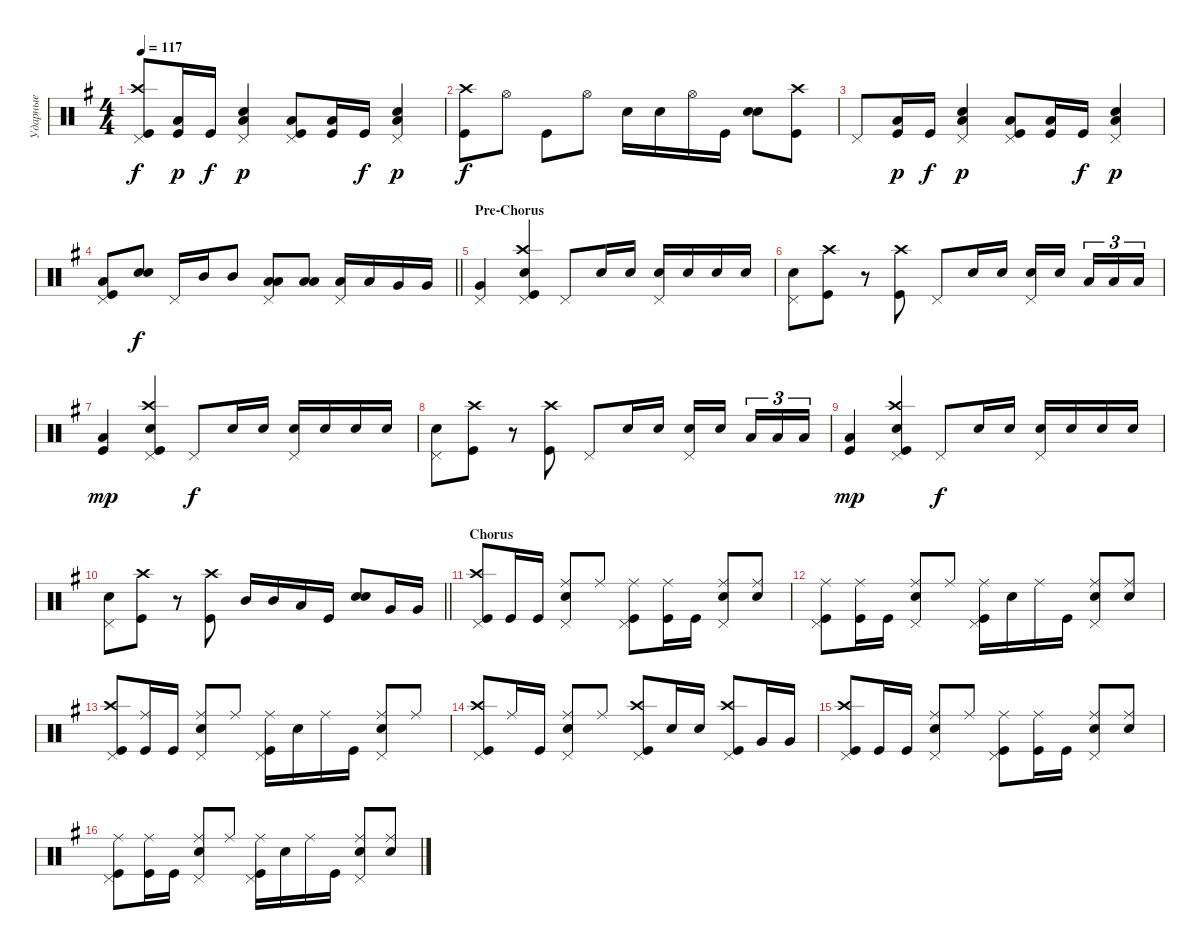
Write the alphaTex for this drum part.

\track ("Ударные" "Ударные") {instrument percussion}
\staff {score}
\articulation defaults
\ts (4 4)
\tempo 117
\clef neutral
\ks eminor
("Kick (hit)" "Crash high (hit)" "Pedal Hi-Hat (hit)").8{dy f} ("Kick (hit)" "Low Floor Tom (hit)").16{dy p} "Kick (hit)".16{dy f} ("Snare (hit) 2" "Pedal Hi-Hat (hit)" "Low Floor Tom (hit)").4{dy p} ("Kick (hit)" "Low Floor Tom (hit)" "Pedal Hi-Hat (hit)").8 ("Kick (hit)" "Low Floor Tom (hit)").16 "Kick (hit)".16{dy f} ("Snare (hit) 2" "Pedal Hi-Hat (hit)" "Low Floor Tom (hit)").4{dy p} |
("Kick (hit)" "Crash high (hit)").8{dy f} "Hi-Hat (open)".8 "Kick (hit)".8 "Hi-Hat (open)".8 "Snare (hit) 2".16 "Snare (hit) 2".16 "Hi-Hat (open)".16 "Kick (hit)".16 ("Snare (hit) 2" "Snare (hit) 2").8{bd 240} ("Kick (hit)" "Crash high (hit)").8 |
"Pedal Hi-Hat (hit)".8 ("Kick (hit)" "Low Floor Tom (hit)").16{dy p} "Kick (hit)".16{dy f} ("Snare (hit) 2" "Pedal Hi-Hat (hit)" "Low Floor Tom (hit)").4{dy p} ("Kick (hit)" "Low Floor Tom (hit)" "Pedal Hi-Hat (hit)").8 ("Kick (hit)" "Low Floor Tom (hit)").16 "Kick (hit)".16{dy f} ("Snare (hit) 2" "Pedal Hi-Hat (hit)" "Low Floor Tom (hit)").4{dy p} |
\barLineRight lightlight
("Kick (hit)" "Low Floor Tom (hit)" "Pedal Hi-Hat (hit)").8 ("Snare (hit) 2" "Snare (hit) 2").8{bd 240 dy f} "Pedal Hi-Hat (hit)".16 "Mid Tom (hit)".16 "Mid Tom (hit)".8 ("Pedal Hi-Hat (hit)" "Low Tom (hit)" "Low Tom (hit)").8{bd 240} ("Low Tom (hit)" "Low Tom (hit)").8{bd 240} ("Pedal Hi-Hat (hit)" "Low Tom (hit)").16 "Low Tom (hit)".16 "Very Low Tom (hit)".16 "Very Low Tom (hit)".16 |
\section ("" "Pre-Chorus")
("Pedal Hi-Hat (hit)" "Very Low Tom (hit)").4 ("Kick (hit)" "Crash high (hit)" "Snare (hit) 2" "Pedal Hi-Hat (hit)").4 "Pedal Hi-Hat (hit)".8 "Snare (hit) 2".16 "Snare (hit) 2".16 ("Snare (hit) 2" "Pedal Hi-Hat (hit)").16 "Snare (hit) 2".16 "Snare (hit) 2".16 "Snare (hit) 2".16 |
("Snare (hit) 2" "Pedal Hi-Hat (hit)").8 ("Kick (hit)" "Crash high (hit)").8 r.8 ("Kick (hit)" "Crash high (hit)").8 "Pedal Hi-Hat (hit)".8 "Snare (hit) 2".16 "Snare (hit) 2".16 ("Snare (hit) 2" "Pedal Hi-Hat (hit)").16 "Snare (hit) 2".16{beam splitsecondary} "Low Tom (hit)".16{tu (3 2)} "Low Tom (hit)".16{tu (3 2)} "Low Tom (hit)".16{tu (3 2)} |
("Kick (hit)" "Low Floor Tom (hit)").4{dy mp} ("Snare (hit) 2" "Crash high (hit)" "Pedal Hi-Hat (hit)" "Kick (hit)").4 "Pedal Hi-Hat (hit)".8{dy f} "Snare (hit) 2".16 "Snare (hit) 2".16 ("Snare (hit) 2" "Pedal Hi-Hat (hit)").16 "Snare (hit) 2".16 "Snare (hit) 2".16 "Snare (hit) 2".16 |
("Snare (hit) 2" "Pedal Hi-Hat (hit)").8 ("Kick (hit)" "Crash high (hit)").8 r.8 ("Kick (hit)" "Crash high (hit)").8 "Pedal Hi-Hat (hit)".8 "Snare (hit) 2".16 "Snare (hit) 2".16 ("Snare (hit) 2" "Pedal Hi-Hat (hit)").16 "Snare (hit) 2".16{beam splitsecondary} "Low Tom (hit)".16{tu (3 2)} "Low Tom (hit)".16{tu (3 2)} "Low Tom (hit)".16{tu (3 2)} |
("Kick (hit)" "Low Floor Tom (hit)").4{dy mp} ("Snare (hit) 2" "Crash high (hit)" "Pedal Hi-Hat (hit)" "Kick (hit)").4 "Pedal Hi-Hat (hit)".8{dy f} "Snare (hit) 2".16 "Snare (hit) 2".16 ("Snare (hit) 2" "Pedal Hi-Hat (hit)").16 "Snare (hit) 2".16 "Snare (hit) 2".16 "Snare (hit) 2".16 |
\barLineRight lightlight
("Snare (hit) 2" "Pedal Hi-Hat (hit)").8 ("Kick (hit)" "Crash high (hit)").8 r.8 ("Kick (hit)" "Crash high (hit)").8 "Mid Tom (hit)".16 "Mid Tom (hit)".16 "Low Tom (hit)".16 "Kick (hit)".16 ("Snare (hit) 2" "Snare (hit) 2").8{bd 240} "Very Low Tom (hit)".16 "Very Low Tom (hit)".16 |
\section ("" "Chorus")
("Crash high (hit)" "Kick (hit)" "Pedal Hi-Hat (hit)").8 "Kick (hit)".16 "Kick (hit)".16 ("Ride (middle)" "Snare (hit) 2" "Pedal Hi-Hat (hit)").8 "Ride (middle)".8 ("Ride (middle)" "Kick (hit)" "Pedal Hi-Hat (hit)").8 ("Ride (middle)" "Kick (hit)").16 "Kick (hit)".16 ("Ride (middle)" "Snare (hit) 2" "Pedal Hi-Hat (hit)").8 ("Ride (middle)" "Snare (hit) 2").8 |
("Kick (hit)" "Ride (middle)" "Pedal Hi-Hat (hit)").8 ("Ride (middle)" "Kick (hit)").16 "Kick (hit)".16 ("Ride (middle)" "Snare (hit) 2" "Pedal Hi-Hat (hit)").8 "Ride (middle)".8 ("Ride (middle)" "Kick (hit)" "Pedal Hi-Hat (hit)").16 "Snare (hit) 2".16 "Ride (middle)".16 "Kick (hit)".16 ("Ride (middle)" "Snare (hit) 2" "Pedal Hi-Hat (hit)").8 ("Ride (middle)" "Snare (hit) 2").8 |
("Kick (hit)" "Crash high (hit)" "Pedal Hi-Hat (hit)").8 ("Ride (middle)" "Kick (hit)").16 "Kick (hit)".16 ("Ride (middle)" "Snare (hit) 2" "Pedal Hi-Hat (hit)").8 "Ride (middle)".8 ("Ride (middle)" "Kick (hit)" "Pedal Hi-Hat (hit)").16 "Snare (hit) 2".16 "Ride (middle)".16 "Kick (hit)".16 ("Ride (middle)" "Snare (hit) 2" "Pedal Hi-Hat (hit)").8 "Ride (middle)".8 |
("Kick (hit)" "Crash high (hit)" "Pedal Hi-Hat (hit)").8 "Ride (middle)".16 "Kick (hit)".16 ("Ride (middle)" "Snare (hit) 2" "Pedal Hi-Hat (hit)").8 "Ride (middle)".8 ("Crash high (hit)" "Kick (hit)" "Pedal Hi-Hat (hit)").8 "Snare (hit) 2".16 "Snare (hit) 2".16 ("Kick (hit)" "Crash high (hit)" "Pedal Hi-Hat (hit)").8 "Very Low Tom (hit)".16 "Very Low Tom (hit)".16 |
("Crash high (hit)" "Kick (hit)" "Pedal Hi-Hat (hit)").8 "Kick (hit)".16 "Kick (hit)".16 ("Ride (middle)" "Snare (hit) 2" "Pedal Hi-Hat (hit)").8 "Ride (middle)".8 ("Ride (middle)" "Kick (hit)" "Pedal Hi-Hat (hit)").8 ("Ride (middle)" "Kick (hit)").16 "Kick (hit)".16 ("Ride (middle)" "Snare (hit) 2" "Pedal Hi-Hat (hit)").8 ("Ride (middle)" "Snare (hit) 2").8 |
("Kick (hit)" "Ride (middle)" "Pedal Hi-Hat (hit)").8 ("Ride (middle)" "Kick (hit)").16 "Kick (hit)".16 ("Ride (middle)" "Snare (hit) 2" "Pedal Hi-Hat (hit)").8 "Ride (middle)".8 ("Ride (middle)" "Kick (hit)" "Pedal Hi-Hat (hit)").16 "Snare (hit) 2".16 "Ride (middle)".16 "Kick (hit)".16 ("Ride (middle)" "Snare (hit) 2" "Pedal Hi-Hat (hit)").8 ("Ride (middle)" "Snare (hit) 2").8
